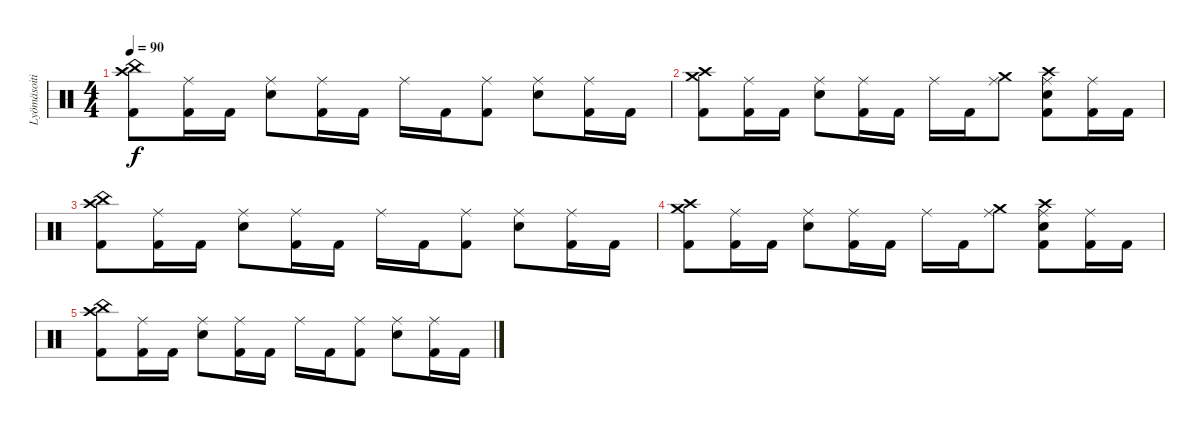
\track ("Lyömäsoitin" "Lyömäsoiti") {instrument percussion}
\staff {score}
\articulation defaults
\ts (4 4)
\tempo 90
\clef neutral
\ks c
("Crash high (hit)" "China (hit)" "Kick (hit) 2").8{dy f} ("Ride (middle)" "Kick (hit) 2").16 "Kick (hit) 2".16 ("Ride (middle)" "Snare (hit) 2").8 ("Ride (middle)" "Kick (hit) 2").16 "Kick (hit) 2".16 "Ride (middle)".16 "Kick (hit) 2".16 ("Ride (middle)" "Kick (hit) 2").8 ("Ride (middle)" "Snare (hit) 2").8 ("Ride (middle)" "Kick (hit) 2").16 "Kick (hit) 2".16 |
("Crash high (hit)" "Crash medium (hit)" "Kick (hit) 2").8 ("Ride (middle)" "Kick (hit) 2").16 "Kick (hit) 2".16 ("Ride (middle)" "Snare (hit) 2").8 ("Ride (middle)" "Kick (hit) 2").16 "Kick (hit) 2".16 "Ride (middle)".16 "Kick (hit) 2".16 ("Ride (middle)" "Crash medium (hit)").8 ("Ride (middle)" "Crash high (hit)" "Snare (hit) 2" "Kick (hit) 2").8 ("Ride (middle)" "Kick (hit) 2").16 "Kick (hit) 2".16 |
("Crash high (hit)" "China (hit)" "Kick (hit) 2").8 ("Ride (middle)" "Kick (hit) 2").16 "Kick (hit) 2".16 ("Ride (middle)" "Snare (hit) 2").8 ("Ride (middle)" "Kick (hit) 2").16 "Kick (hit) 2".16 "Ride (middle)".16 "Kick (hit) 2".16 ("Ride (middle)" "Kick (hit) 2").8 ("Ride (middle)" "Snare (hit) 2").8 ("Ride (middle)" "Kick (hit) 2").16 "Kick (hit) 2".16 |
("Crash high (hit)" "Crash medium (hit)" "Kick (hit) 2").8 ("Ride (middle)" "Kick (hit) 2").16 "Kick (hit) 2".16 ("Ride (middle)" "Snare (hit) 2").8 ("Ride (middle)" "Kick (hit) 2").16 "Kick (hit) 2".16 "Ride (middle)".16 "Kick (hit) 2".16 ("Ride (middle)" "Crash medium (hit)").8 ("Ride (middle)" "Crash high (hit)" "Snare (hit) 2" "Kick (hit) 2").8 ("Ride (middle)" "Kick (hit) 2").16 "Kick (hit) 2".16 |
("Crash high (hit)" "China (hit)" "Kick (hit) 2").8 ("Ride (middle)" "Kick (hit) 2").16 "Kick (hit) 2".16 ("Ride (middle)" "Snare (hit) 2").8 ("Ride (middle)" "Kick (hit) 2").16 "Kick (hit) 2".16 "Ride (middle)".16 "Kick (hit) 2".16 ("Ride (middle)" "Kick (hit) 2").8 ("Ride (middle)" "Snare (hit) 2").8 ("Ride (middle)" "Kick (hit) 2").16 "Kick (hit) 2".16
